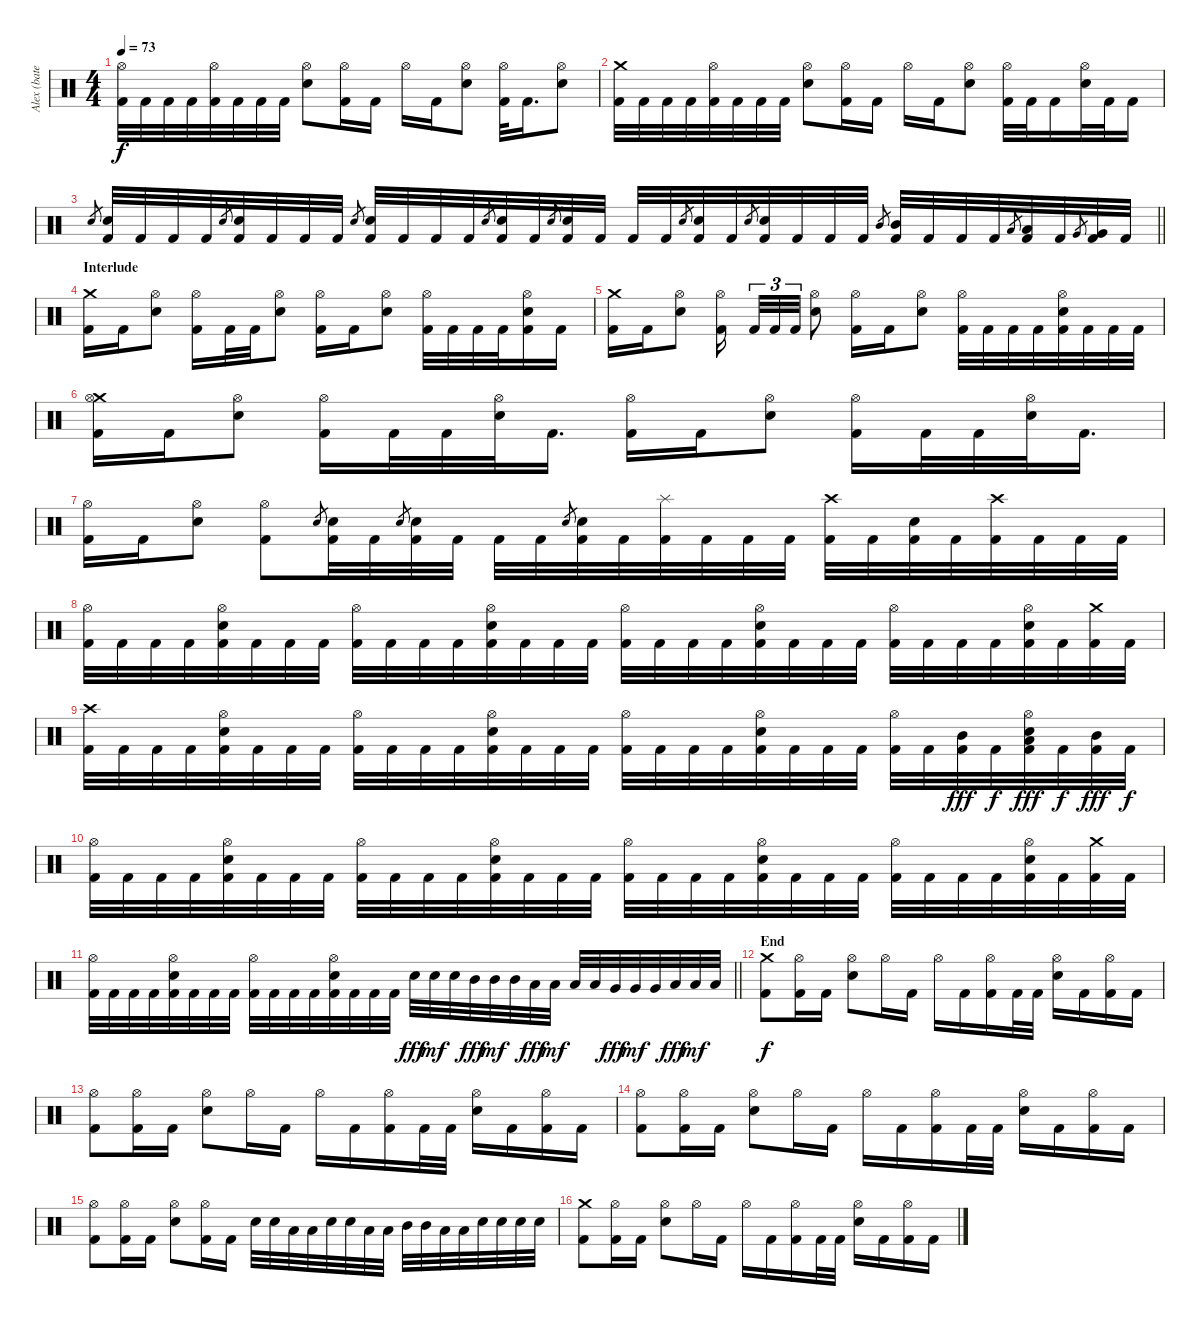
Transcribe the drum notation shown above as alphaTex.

\track ("Alex (bateria)" "Alex (bate") {instrument percussion}
\staff {score}
\articulation defaults
\ts (4 4)
\tempo 73
\clef neutral
\ks c
("Hi-Hat (open)" "Kick (hit) 2").32{dy f} "Kick (hit) 2".32 "Kick (hit) 2".32 "Kick (hit) 2".32 ("Hi-Hat (open)" "Kick (hit) 2").32 "Kick (hit) 2".32 "Kick (hit) 2".32 "Kick (hit) 2".32 ("Hi-Hat (open)" "Electric Snare (hit)").8 ("Hi-Hat (open)" "Kick (hit) 2").16 "Kick (hit) 2".16 "Hi-Hat (open)".16 "Kick (hit) 2".16 ("Hi-Hat (open)" "Electric Snare (hit)").8 ("Hi-Hat (open)" "Kick (hit) 2").32 "Kick (hit) 2".16{d} ("Hi-Hat (open)" "Electric Snare (hit)").8 |
("Crash medium (hit)" "Kick (hit) 2").32 "Kick (hit) 2".32 "Kick (hit) 2".32 "Kick (hit) 2".32 ("Hi-Hat (open)" "Kick (hit) 2").32 "Kick (hit) 2".32 "Kick (hit) 2".32 "Kick (hit) 2".32 ("Hi-Hat (open)" "Electric Snare (hit)").8 ("Hi-Hat (open)" "Kick (hit) 2").16 "Kick (hit) 2".16 "Hi-Hat (open)".16 "Kick (hit) 2".16 ("Hi-Hat (open)" "Electric Snare (hit)").8 ("Hi-Hat (open)" "Kick (hit) 2").32 "Kick (hit) 2".32 "Kick (hit) 2".16 ("Hi-Hat (open)" "Electric Snare (hit)").32 "Kick (hit) 2".32 "Kick (hit) 2".16 |
\barLineRight lightlight "Electric Snare (hit)".8{gr}
("Electric Snare (hit)" "Kick (hit) 2").32 "Kick (hit) 2".32 "Kick (hit) 2".32 "Kick (hit) 2".32 "Electric Snare (hit)".8{gr} ("Electric Snare (hit)" "Kick (hit) 2").32 "Kick (hit) 2".32 "Kick (hit) 2".32 "Kick (hit) 2".32 "Electric Snare (hit)".8{gr} ("Electric Snare (hit)" "Kick (hit) 2").32 "Kick (hit) 2".32 "Kick (hit) 2".32 "Kick (hit) 2".32 "Electric Snare (hit)".8{gr} ("Electric Snare (hit)" "Kick (hit) 2").32 "Kick (hit) 2".32 "Electric Snare (hit)".8{gr} ("Electric Snare (hit)" "Kick (hit) 2").32 "Kick (hit) 2".32 "Kick (hit) 2".32 "Kick (hit) 2".32 "Electric Snare (hit)".8{gr} ("Electric Snare (hit)" "Kick (hit) 2").32 "Kick (hit) 2".32 "Electric Snare (hit)".8{gr} ("Electric Snare (hit)" "Kick (hit) 2").32 "Kick (hit) 2".32 "Kick (hit) 2".32 "Kick (hit) 2".32 "Mid Tom (hit)".8{gr} ("Mid Tom (hit)" "Kick (hit) 2").32 "Kick (hit) 2".32 "Kick (hit) 2".32 "Kick (hit) 2".32 "Low Tom (hit)".8{gr} ("Low Tom (hit)" "Kick (hit) 2").32 "Kick (hit) 2".32 "Very Low Tom (hit)".8{gr} ("Very Low Tom (hit)" "Kick (hit) 2").32 "Kick (hit) 2".32 |
\section ("" "Interlude")
("Crash medium (hit)" "Kick (hit) 2").16 "Kick (hit) 2".16 ("Hi-Hat (open)" "Electric Snare (hit)").8 ("Hi-Hat (open)" "Kick (hit) 2").16 "Kick (hit) 2".32 "Kick (hit) 2".32 ("Hi-Hat (open)" "Electric Snare (hit)").8 ("Hi-Hat (open)" "Kick (hit) 2").16 "Kick (hit) 2".16 ("Hi-Hat (open)" "Electric Snare (hit)").8 ("Hi-Hat (open)" "Kick (hit) 2").32 "Kick (hit) 2".32 "Kick (hit) 2".32 "Kick (hit) 2".32 ("Hi-Hat (open)" "Electric Snare (hit)" "Kick (hit) 2").16 "Kick (hit) 2".16 |
("Crash medium (hit)" "Kick (hit) 2").16 "Kick (hit) 2".16 ("Hi-Hat (open)" "Electric Snare (hit)").8 ("Hi-Hat (open)" "Kick (hit) 2").16{beam splitsecondary} "Kick (hit) 2".32{tu (3 2)} "Kick (hit) 2".32{tu (3 2)} "Kick (hit) 2".32{tu (3 2)} ("Hi-Hat (open)" "Electric Snare (hit)").8 ("Hi-Hat (open)" "Kick (hit) 2").16 "Kick (hit) 2".16 ("Hi-Hat (open)" "Electric Snare (hit)").8 ("Hi-Hat (open)" "Kick (hit) 2").32 "Kick (hit) 2".32 "Kick (hit) 2".32 "Kick (hit) 2".32 ("Hi-Hat (open)" "Electric Snare (hit)" "Kick (hit) 2").32 "Kick (hit) 2".32 "Kick (hit) 2".32 "Kick (hit) 2".32 |
("Crash medium (hit)" "Hi-Hat (open)" "Kick (hit) 2").16 "Kick (hit) 2".16 ("Hi-Hat (open)" "Electric Snare (hit)").8 ("Hi-Hat (open)" "Kick (hit) 2").16 "Kick (hit) 2".32 "Kick (hit) 2".32 ("Hi-Hat (open)" "Electric Snare (hit)").32 "Kick (hit) 2".16{d} ("Hi-Hat (open)" "Kick (hit) 2").16 "Kick (hit) 2".16 ("Hi-Hat (open)" "Electric Snare (hit)").8 ("Hi-Hat (open)" "Kick (hit) 2").16 "Kick (hit) 2".32 "Kick (hit) 2".32 ("Hi-Hat (open)" "Electric Snare (hit)").32 "Kick (hit) 2".16{d} |
("Hi-Hat (open)" "Kick (hit) 2").16 "Kick (hit) 2".16 ("Hi-Hat (open)" "Electric Snare (hit)").8 ("Hi-Hat (open)" "Kick (hit) 2").8 "Electric Snare (hit)".8{gr} ("Electric Snare (hit)" "Kick (hit) 2").32 "Kick (hit) 2".32 "Electric Snare (hit)".8{gr} ("Electric Snare (hit)" "Kick (hit) 2").32 "Kick (hit) 2".32 "Kick (hit) 2".32 "Kick (hit) 2".32 "Electric Snare (hit)".8{gr} ("Electric Snare (hit)" "Kick (hit) 2").32 "Kick (hit) 2".32 ("Splash (hit)" "Kick (hit) 2").32 "Kick (hit) 2".32 "Kick (hit) 2".32 "Kick (hit) 2".32 ("Crash high (hit)" "Kick (hit) 2").32 "Kick (hit) 2".32 ("Electric Snare (hit)" "Kick (hit) 2").32 "Kick (hit) 2".32 ("Crash high (hit)" "Kick (hit) 2").32 "Kick (hit) 2".32 "Kick (hit) 2".32 "Kick (hit) 2".32 |
("Hi-Hat (open)" "Kick (hit) 2").32 "Kick (hit) 2".32 "Kick (hit) 2".32 "Kick (hit) 2".32 ("Hi-Hat (open)" "Electric Snare (hit)" "Kick (hit) 2").32 "Kick (hit) 2".32 "Kick (hit) 2".32 "Kick (hit) 2".32 ("Hi-Hat (open)" "Kick (hit) 2").32 "Kick (hit) 2".32 "Kick (hit) 2".32 "Kick (hit) 2".32 ("Hi-Hat (open)" "Electric Snare (hit)" "Kick (hit) 2").32 "Kick (hit) 2".32 "Kick (hit) 2".32 "Kick (hit) 2".32 ("Hi-Hat (open)" "Kick (hit) 2").32 "Kick (hit) 2".32 "Kick (hit) 2".32 "Kick (hit) 2".32 ("Hi-Hat (open)" "Electric Snare (hit)" "Kick (hit) 2").32 "Kick (hit) 2".32 "Kick (hit) 2".32 "Kick (hit) 2".32 ("Hi-Hat (open)" "Kick (hit) 2").32 "Kick (hit) 2".32 "Kick (hit) 2".32 "Kick (hit) 2".32 ("Hi-Hat (open)" "Electric Snare (hit)" "Kick (hit) 2").32 "Kick (hit) 2".32 ("Crash medium (hit)" "Kick (hit) 2").32 "Kick (hit) 2".32 |
("Crash high (hit)" "Kick (hit) 2").32 "Kick (hit) 2".32 "Kick (hit) 2".32 "Kick (hit) 2".32 ("Hi-Hat (open)" "Electric Snare (hit)" "Kick (hit) 2").32 "Kick (hit) 2".32 "Kick (hit) 2".32 "Kick (hit) 2".32 ("Hi-Hat (open)" "Kick (hit) 2").32 "Kick (hit) 2".32 "Kick (hit) 2".32 "Kick (hit) 2".32 ("Hi-Hat (open)" "Electric Snare (hit)" "Kick (hit) 2").32 "Kick (hit) 2".32 "Kick (hit) 2".32 "Kick (hit) 2".32 ("Hi-Hat (open)" "Kick (hit) 2").32 "Kick (hit) 2".32 "Kick (hit) 2".32 "Kick (hit) 2".32 ("Hi-Hat (open)" "Electric Snare (hit)" "Kick (hit) 2").32 "Kick (hit) 2".32 "Kick (hit) 2".32 "Kick (hit) 2".32 ("Hi-Hat (open)" "Kick (hit) 2").32 "Kick (hit) 2".32 ("Mid Tom (hit)" "Kick (hit) 2").32{dy fff} "Kick (hit) 2".32{dy f} ("Hi-Hat (open)" "Low Tom (hit)" "Electric Snare (hit)" "Kick (hit) 2").32{dy fff} "Kick (hit) 2".32{dy f} ("Mid Tom (hit)" "Kick (hit) 2").32{dy fff} "Kick (hit) 2".32{dy f} |
("Hi-Hat (open)" "Kick (hit) 2").32 "Kick (hit) 2".32 "Kick (hit) 2".32 "Kick (hit) 2".32 ("Hi-Hat (open)" "Electric Snare (hit)" "Kick (hit) 2").32 "Kick (hit) 2".32 "Kick (hit) 2".32 "Kick (hit) 2".32 ("Hi-Hat (open)" "Kick (hit) 2").32 "Kick (hit) 2".32 "Kick (hit) 2".32 "Kick (hit) 2".32 ("Hi-Hat (open)" "Electric Snare (hit)" "Kick (hit) 2").32 "Kick (hit) 2".32 "Kick (hit) 2".32 "Kick (hit) 2".32 ("Hi-Hat (open)" "Kick (hit) 2").32 "Kick (hit) 2".32 "Kick (hit) 2".32 "Kick (hit) 2".32 ("Hi-Hat (open)" "Electric Snare (hit)" "Kick (hit) 2").32 "Kick (hit) 2".32 "Kick (hit) 2".32 "Kick (hit) 2".32 ("Hi-Hat (open)" "Kick (hit) 2").32 "Kick (hit) 2".32 "Kick (hit) 2".32 "Kick (hit) 2".32 ("Hi-Hat (open)" "Electric Snare (hit)" "Kick (hit) 2").32 "Kick (hit) 2".32 ("Crash medium (hit)" "Kick (hit) 2").32 "Kick (hit) 2".32 |
\barLineRight lightlight
("Hi-Hat (open)" "Kick (hit) 2").32 "Kick (hit) 2".32 "Kick (hit) 2".32 "Kick (hit) 2".32 ("Hi-Hat (open)" "Electric Snare (hit)" "Kick (hit) 2").32 "Kick (hit) 2".32 "Kick (hit) 2".32 "Kick (hit) 2".32 ("Hi-Hat (open)" "Kick (hit) 2").32 "Kick (hit) 2".32 "Kick (hit) 2".32 "Kick (hit) 2".32 ("Hi-Hat (open)" "Electric Snare (hit)" "Kick (hit) 2").32 "Kick (hit) 2".32 "Kick (hit) 2".32 "Kick (hit) 2".32 "Electric Snare (hit)".32{dy fff} "Electric Snare (hit)".32{dy mf} "Electric Snare (hit)".32 "Mid Tom (hit)".32{dy fff} "Mid Tom (hit)".32{dy mf} "Mid Tom (hit)".32 "Low Tom (hit)".32{dy fff} "Low Tom (hit)".32{dy mf} "Low Tom (hit)".32 "Low Tom (hit)".32 "Very Low Tom (hit)".32{dy fff} "Very Low Tom (hit)".32{dy mf} "Very Low Tom (hit)".32 "Low Floor Tom (hit)".32{dy fff} "Low Floor Tom (hit)".32{dy mf} "Low Floor Tom (hit)".32 |
\section ("" "End")
("Crash medium (hit)" "Kick (hit) 2").8{dy f} ("Hi-Hat (open)" "Kick (hit) 2").16 "Kick (hit) 2".16 ("Hi-Hat (open)" "Electric Snare (hit)").8 "Hi-Hat (open)".16 "Kick (hit) 2".16 "Hi-Hat (open)".16 "Kick (hit) 2".16 ("Hi-Hat (open)" "Kick (hit) 2").16 "Kick (hit) 2".32 "Kick (hit) 2".32 ("Hi-Hat (open)" "Electric Snare (hit)").16 "Kick (hit) 2".16 ("Hi-Hat (open)" "Kick (hit) 2").16 "Kick (hit) 2".16 |
("Hi-Hat (open)" "Kick (hit) 2").8 ("Hi-Hat (open)" "Kick (hit) 2").16 "Kick (hit) 2".16 ("Hi-Hat (open)" "Electric Snare (hit)").8 "Hi-Hat (open)".16 "Kick (hit) 2".16 "Hi-Hat (open)".16 "Kick (hit) 2".16 ("Hi-Hat (open)" "Kick (hit) 2").16 "Kick (hit) 2".32 "Kick (hit) 2".32 ("Hi-Hat (open)" "Electric Snare (hit)").16 "Kick (hit) 2".16 ("Hi-Hat (open)" "Kick (hit) 2").16 "Kick (hit) 2".16 |
("Hi-Hat (open)" "Kick (hit) 2").8 ("Hi-Hat (open)" "Kick (hit) 2").16 "Kick (hit) 2".16 ("Hi-Hat (open)" "Electric Snare (hit)").8 "Hi-Hat (open)".16 "Kick (hit) 2".16 "Hi-Hat (open)".16 "Kick (hit) 2".16 ("Hi-Hat (open)" "Kick (hit) 2").16 "Kick (hit) 2".32 "Kick (hit) 2".32 ("Hi-Hat (open)" "Electric Snare (hit)").16 "Kick (hit) 2".16 ("Hi-Hat (open)" "Kick (hit) 2").16 "Kick (hit) 2".16 |
("Hi-Hat (open)" "Kick (hit) 2").8 ("Hi-Hat (open)" "Kick (hit) 2").16 "Kick (hit) 2".16 ("Hi-Hat (open)" "Electric Snare (hit)").8 ("Hi-Hat (open)" "Kick (hit) 2").16 "Kick (hit) 2".16 "Electric Snare (hit)".32 "Electric Snare (hit)".32 "Low Tom (hit)".32 "Low Tom (hit)".32 "Electric Snare (hit)".32 "Electric Snare (hit)".32 "Low Tom (hit)".32 "Low Tom (hit)".32 "Mid Tom (hit)".32 "Mid Tom (hit)".32 "Low Tom (hit)".32 "Low Tom (hit)".32 "Electric Snare (hit)".32 "Electric Snare (hit)".32 "Electric Snare (hit)".32 "Electric Snare (hit)".32 |
("Crash medium (hit)" "Kick (hit) 2").8 ("Hi-Hat (open)" "Kick (hit) 2").16 "Kick (hit) 2".16 ("Hi-Hat (open)" "Electric Snare (hit)").8 "Hi-Hat (open)".16 "Kick (hit) 2".16 "Hi-Hat (open)".16 "Kick (hit) 2".16 ("Hi-Hat (open)" "Kick (hit) 2").16 "Kick (hit) 2".32 "Kick (hit) 2".32 ("Hi-Hat (open)" "Electric Snare (hit)").16 "Kick (hit) 2".16 ("Hi-Hat (open)" "Kick (hit) 2").16 "Kick (hit) 2".16
